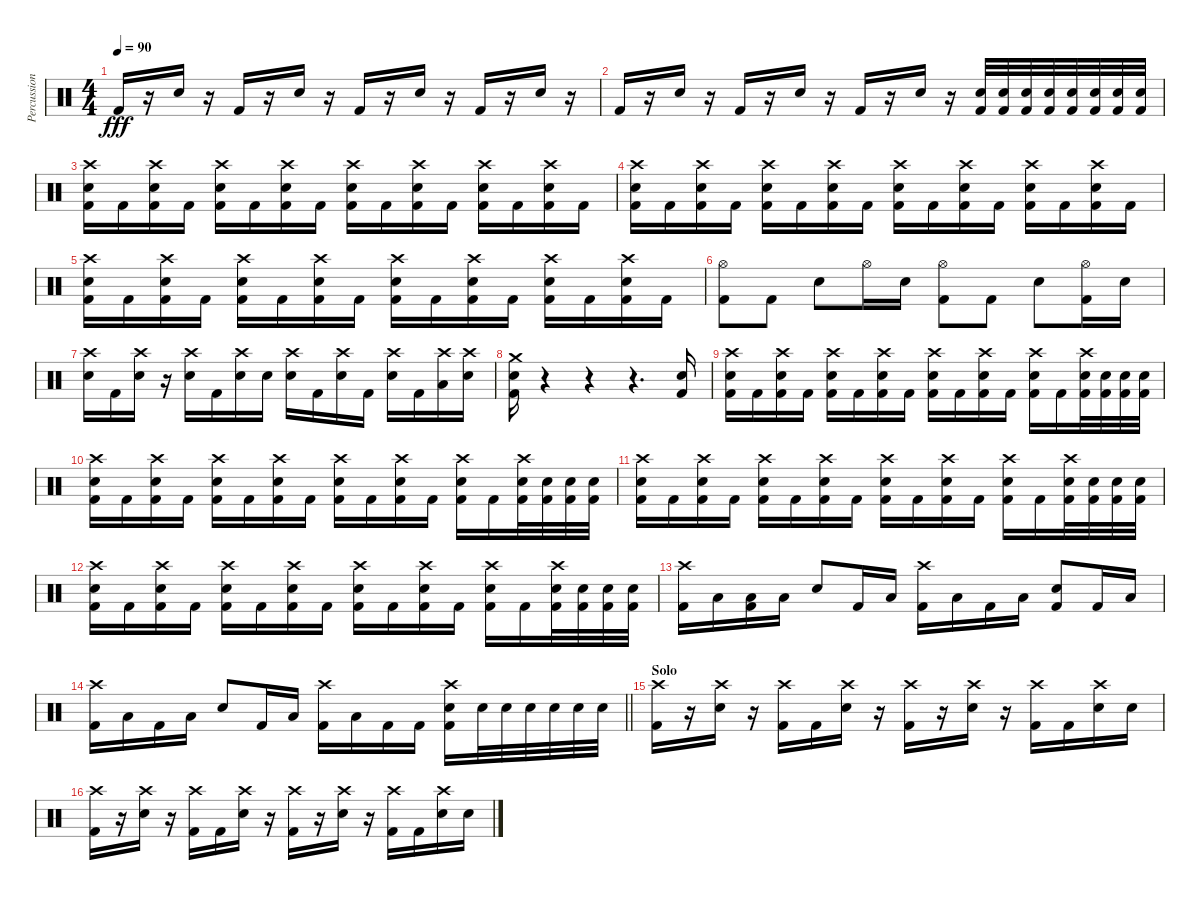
\track ("Percussion" "Percussion") {instrument percussion}
\staff {score}
\articulation defaults
\ts (4 4)
\tempo 90
\clef neutral
\ks c "Kick (hit) 2".16{dy fff}
r.16 "Electric Snare (hit)".16 r.16 "Kick (hit) 2".16 r.16 "Electric Snare (hit)".16 r.16 "Kick (hit) 2".16 r.16 "Electric Snare (hit)".16 r.16 "Kick (hit) 2".16 r.16 "Electric Snare (hit)".16 r.16 |
"Kick (hit) 2".16 r.16 "Electric Snare (hit)".16 r.16 "Kick (hit) 2".16 r.16 "Electric Snare (hit)".16 r.16 "Kick (hit) 2".16 r.16 "Electric Snare (hit)".16 r.16 ("Electric Snare (hit)" "Kick (hit) 2").32 ("Electric Snare (hit)" "Kick (hit) 2").32 ("Electric Snare (hit)" "Kick (hit) 2").32 ("Electric Snare (hit)" "Kick (hit) 2").32 ("Electric Snare (hit)" "Kick (hit) 2").32 ("Electric Snare (hit)" "Kick (hit) 2").32 ("Electric Snare (hit)" "Kick (hit) 2").32 ("Electric Snare (hit)" "Kick (hit) 2").32 |
("Crash high (hit)" "Electric Snare (hit)" "Kick (hit) 2").16 "Kick (hit) 2".16 ("Crash high (hit)" "Electric Snare (hit)" "Kick (hit) 2").16 "Kick (hit) 2".16 ("Crash high (hit)" "Electric Snare (hit)" "Kick (hit) 2").16 "Kick (hit) 2".16 ("Crash high (hit)" "Electric Snare (hit)" "Kick (hit) 2").16 "Kick (hit) 2".16 ("Crash high (hit)" "Electric Snare (hit)" "Kick (hit) 2").16 "Kick (hit) 2".16 ("Crash high (hit)" "Electric Snare (hit)" "Kick (hit) 2").16 "Kick (hit) 2".16 ("Crash high (hit)" "Electric Snare (hit)" "Kick (hit) 2").16 "Kick (hit) 2".16 ("Crash high (hit)" "Electric Snare (hit)" "Kick (hit) 2").16 "Kick (hit) 2".16 |
("Crash high (hit)" "Electric Snare (hit)" "Kick (hit) 2").16 "Kick (hit) 2".16 ("Crash high (hit)" "Electric Snare (hit)" "Kick (hit) 2").16 "Kick (hit) 2".16 ("Crash high (hit)" "Electric Snare (hit)" "Kick (hit) 2").16 "Kick (hit) 2".16 ("Crash high (hit)" "Electric Snare (hit)" "Kick (hit) 2").16 "Kick (hit) 2".16 ("Crash high (hit)" "Electric Snare (hit)" "Kick (hit) 2").16 "Kick (hit) 2".16 ("Crash high (hit)" "Electric Snare (hit)" "Kick (hit) 2").16 "Kick (hit) 2".16 ("Crash high (hit)" "Electric Snare (hit)" "Kick (hit) 2").16 "Kick (hit) 2".16 ("Crash high (hit)" "Electric Snare (hit)" "Kick (hit) 2").16 "Kick (hit) 2".16 |
("Crash high (hit)" "Electric Snare (hit)" "Kick (hit) 2").16 "Kick (hit) 2".16 ("Crash high (hit)" "Electric Snare (hit)" "Kick (hit) 2").16 "Kick (hit) 2".16 ("Crash high (hit)" "Electric Snare (hit)" "Kick (hit) 2").16 "Kick (hit) 2".16 ("Crash high (hit)" "Electric Snare (hit)" "Kick (hit) 2").16 "Kick (hit) 2".16 ("Crash high (hit)" "Electric Snare (hit)" "Kick (hit) 2").16 "Kick (hit) 2".16 ("Crash high (hit)" "Electric Snare (hit)" "Kick (hit) 2").16 "Kick (hit) 2".16 ("Crash high (hit)" "Electric Snare (hit)" "Kick (hit) 2").16 "Kick (hit) 2".16 ("Crash high (hit)" "Electric Snare (hit)" "Kick (hit) 2").16 "Kick (hit) 2".16 |
("Hi-Hat (open)" "Kick (hit) 2").8 "Kick (hit) 2".8 "Electric Snare (hit)".8 "Hi-Hat (open)".16 "Electric Snare (hit)".16 ("Hi-Hat (open)" "Kick (hit) 2").8 "Kick (hit) 2".8 "Electric Snare (hit)".8 ("Hi-Hat (open)" "Kick (hit) 2").16 "Electric Snare (hit)".16 |
("Crash high (hit)" "Electric Snare (hit)").16 "Kick (hit) 2".16 ("Crash high (hit)" "Electric Snare (hit)").16 r.16 ("Crash high (hit)" "Electric Snare (hit)").16 "Kick (hit) 2".16 ("Crash high (hit)" "Electric Snare (hit)").16 "Electric Snare (hit)".16 ("Crash high (hit)" "Electric Snare (hit)").16 "Kick (hit) 2".16 ("Crash high (hit)" "Electric Snare (hit)").16 "Kick (hit) 2".16 ("Crash high (hit)" "Electric Snare (hit)").16 "Kick (hit) 2".16 ("Crash high (hit)" "Low Tom (hit)").16 ("Crash high (hit)" "Electric Snare (hit)").16 |
("Crash medium (hit)" "Electric Snare (hit)" "Kick (hit) 2").16 r.4 r.4 r.4{d} ("Electric Snare (hit)" "Kick (hit) 2").16 |
("Crash high (hit)" "Electric Snare (hit)" "Kick (hit) 2").16 "Kick (hit) 2".16 ("Crash high (hit)" "Electric Snare (hit)" "Kick (hit) 2").16 "Kick (hit) 2".16 ("Crash high (hit)" "Electric Snare (hit)" "Kick (hit) 2").16 "Kick (hit) 2".16 ("Crash high (hit)" "Electric Snare (hit)" "Kick (hit) 2").16 "Kick (hit) 2".16 ("Crash high (hit)" "Electric Snare (hit)" "Kick (hit) 2").16 "Kick (hit) 2".16 ("Crash high (hit)" "Electric Snare (hit)" "Kick (hit) 2").16 "Kick (hit) 2".16 ("Crash high (hit)" "Electric Snare (hit)" "Kick (hit) 2").16 "Kick (hit) 2".16 ("Crash high (hit)" "Electric Snare (hit)" "Kick (hit) 2").32 ("Electric Snare (hit)" "Kick (hit) 2").32 ("Electric Snare (hit)" "Kick (hit) 2").32 ("Electric Snare (hit)" "Kick (hit) 2").32 |
("Crash high (hit)" "Electric Snare (hit)" "Kick (hit) 2").16 "Kick (hit) 2".16 ("Crash high (hit)" "Electric Snare (hit)" "Kick (hit) 2").16 "Kick (hit) 2".16 ("Crash high (hit)" "Electric Snare (hit)" "Kick (hit) 2").16 "Kick (hit) 2".16 ("Crash high (hit)" "Electric Snare (hit)" "Kick (hit) 2").16 "Kick (hit) 2".16 ("Crash high (hit)" "Electric Snare (hit)" "Kick (hit) 2").16 "Kick (hit) 2".16 ("Crash high (hit)" "Electric Snare (hit)" "Kick (hit) 2").16 "Kick (hit) 2".16 ("Crash high (hit)" "Electric Snare (hit)" "Kick (hit) 2").16 "Kick (hit) 2".16 ("Crash high (hit)" "Electric Snare (hit)" "Kick (hit) 2").32 ("Electric Snare (hit)" "Kick (hit) 2").32 ("Electric Snare (hit)" "Kick (hit) 2").32 ("Electric Snare (hit)" "Kick (hit) 2").32 |
("Crash high (hit)" "Electric Snare (hit)" "Kick (hit) 2").16 "Kick (hit) 2".16 ("Crash high (hit)" "Electric Snare (hit)" "Kick (hit) 2").16 "Kick (hit) 2".16 ("Crash high (hit)" "Electric Snare (hit)" "Kick (hit) 2").16 "Kick (hit) 2".16 ("Crash high (hit)" "Electric Snare (hit)" "Kick (hit) 2").16 "Kick (hit) 2".16 ("Crash high (hit)" "Electric Snare (hit)" "Kick (hit) 2").16 "Kick (hit) 2".16 ("Crash high (hit)" "Electric Snare (hit)" "Kick (hit) 2").16 "Kick (hit) 2".16 ("Crash high (hit)" "Electric Snare (hit)" "Kick (hit) 2").16 "Kick (hit) 2".16 ("Crash high (hit)" "Electric Snare (hit)" "Kick (hit) 2").32 ("Electric Snare (hit)" "Kick (hit) 2").32 ("Electric Snare (hit)" "Kick (hit) 2").32 ("Electric Snare (hit)" "Kick (hit) 2").32 |
("Crash high (hit)" "Electric Snare (hit)" "Kick (hit) 2").16 "Kick (hit) 2".16 ("Crash high (hit)" "Electric Snare (hit)" "Kick (hit) 2").16 "Kick (hit) 2".16 ("Crash high (hit)" "Electric Snare (hit)" "Kick (hit) 2").16 "Kick (hit) 2".16 ("Crash high (hit)" "Electric Snare (hit)" "Kick (hit) 2").16 "Kick (hit) 2".16 ("Crash high (hit)" "Electric Snare (hit)" "Kick (hit) 2").16 "Kick (hit) 2".16 ("Crash high (hit)" "Electric Snare (hit)" "Kick (hit) 2").16 "Kick (hit) 2".16 ("Crash high (hit)" "Electric Snare (hit)" "Kick (hit) 2").16 "Kick (hit) 2".16 ("Crash high (hit)" "Electric Snare (hit)" "Kick (hit) 2").32 ("Electric Snare (hit)" "Kick (hit) 2").32 ("Electric Snare (hit)" "Kick (hit) 2").32 ("Electric Snare (hit)" "Kick (hit) 2").32 |
("Crash high (hit)" "Kick (hit) 2").16 "Low Floor Tom (hit)".16 ("Low Floor Tom (hit)" "Kick (hit) 2").16 "Low Floor Tom (hit)".16 "Electric Snare (hit)".8 "Kick (hit) 2".16 "Low Floor Tom (hit)".16 ("Crash high (hit)" "Kick (hit) 2").16 "Low Floor Tom (hit)".16 "Kick (hit) 2".16 "Low Floor Tom (hit)".16 ("Electric Snare (hit)" "Kick (hit) 2").8 "Kick (hit) 2".16 "Low Floor Tom (hit)".16 |
\barLineRight lightlight
("Crash high (hit)" "Kick (hit) 2").16 "Low Floor Tom (hit)".16 "Kick (hit) 2".16 "Low Floor Tom (hit)".16 "Electric Snare (hit)".8 "Kick (hit) 2".16 "Low Floor Tom (hit)".16 ("Crash high (hit)" "Kick (hit) 2").16 "Low Floor Tom (hit)".16 "Kick (hit) 2".16 "Kick (hit) 2".16 ("Crash high (hit)" "Electric Snare (hit)" "Kick (hit) 2").16 "Electric Snare (hit)".32 "Electric Snare (hit)".32 "Electric Snare (hit)".32 "Electric Snare (hit)".32 "Electric Snare (hit)".32 "Electric Snare (hit)".32 |
\section ("" "Solo")
("Crash high (hit)" "Kick (hit) 2").16 r.16 ("Crash high (hit)" "Electric Snare (hit)").16 r.16 ("Crash high (hit)" "Kick (hit) 2").16 "Kick (hit) 2".16 ("Crash high (hit)" "Electric Snare (hit)").16 r.16 ("Crash high (hit)" "Kick (hit) 2").16 r.16 ("Crash high (hit)" "Electric Snare (hit)").16 r.16 ("Crash high (hit)" "Kick (hit) 2").16 "Kick (hit) 2".16 ("Crash high (hit)" "Electric Snare (hit)").16 "Electric Snare (hit)".16 |
("Crash high (hit)" "Kick (hit) 2").16 r.16 ("Crash high (hit)" "Electric Snare (hit)").16 r.16 ("Crash high (hit)" "Kick (hit) 2").16 "Kick (hit) 2".16 ("Crash high (hit)" "Electric Snare (hit)").16 r.16 ("Crash high (hit)" "Kick (hit) 2").16 r.16 ("Crash high (hit)" "Electric Snare (hit)").16 r.16 ("Crash high (hit)" "Kick (hit) 2").16 "Kick (hit) 2".16 ("Crash high (hit)" "Electric Snare (hit)").16 "Electric Snare (hit)".16
